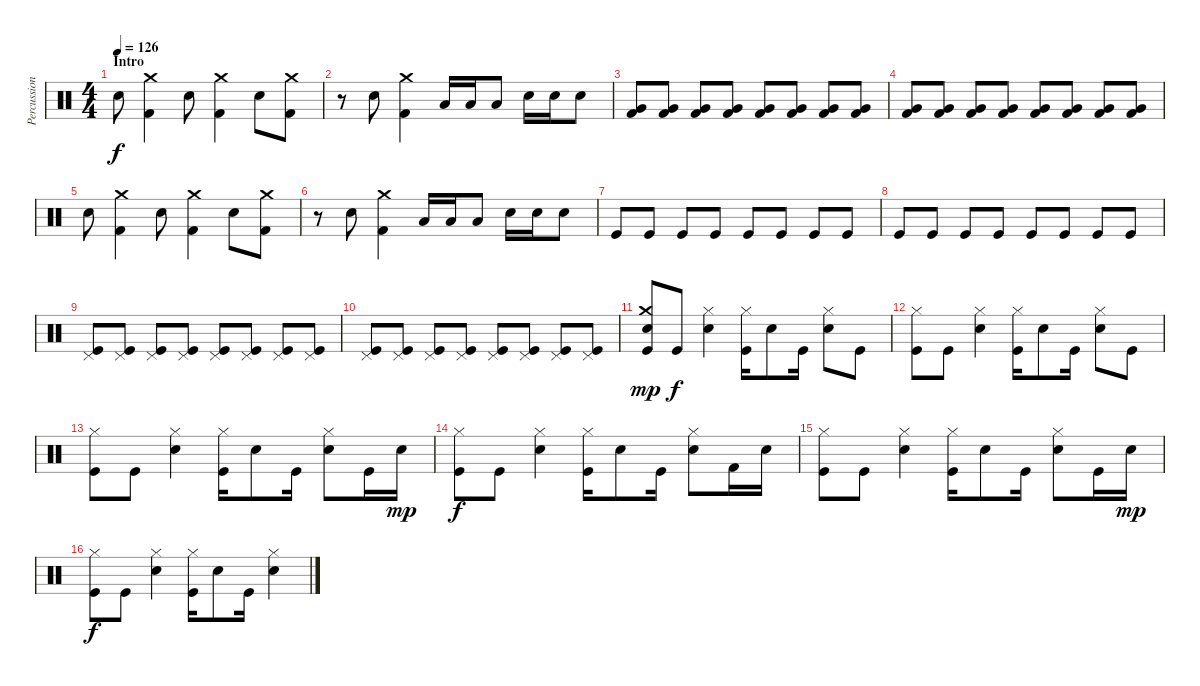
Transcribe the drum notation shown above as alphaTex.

\track ("Percussion" "Percussion") {instrument percussion}
\staff {score}
\articulation defaults
\ts (4 4)
\section ("" "Intro")
\tempo 126
\clef neutral
\ks c "Snare (hit) 2".8{dy f}
("Crash medium (hit)" "Kick (hit) 2").4 "Snare (hit) 2".8 ("Crash medium (hit)" "Kick (hit) 2").4 "Snare (hit) 2".8 ("Crash medium (hit)" "Kick (hit) 2").8 |
r.8 "Snare (hit) 2".8 ("Crash medium (hit)" "Kick (hit) 2").4 "Low Tom (hit)".16 "Low Tom (hit)".16 "Low Tom (hit)".8 "Snare (hit) 2".16 "Snare (hit) 2".16 "Snare (hit) 2".8 |
("Very Low Tom (hit)" "Kick (hit) 2").8 ("Very Low Tom (hit)" "Kick (hit) 2").8 ("Very Low Tom (hit)" "Kick (hit) 2").8 ("Very Low Tom (hit)" "Kick (hit) 2").8 ("Very Low Tom (hit)" "Kick (hit) 2").8 ("Very Low Tom (hit)" "Kick (hit) 2").8 ("Very Low Tom (hit)" "Kick (hit) 2").8 ("Very Low Tom (hit)" "Kick (hit) 2").8 |
("Very Low Tom (hit)" "Kick (hit) 2").8 ("Very Low Tom (hit)" "Kick (hit) 2").8 ("Very Low Tom (hit)" "Kick (hit) 2").8 ("Very Low Tom (hit)" "Kick (hit) 2").8 ("Very Low Tom (hit)" "Kick (hit) 2").8 ("Very Low Tom (hit)" "Kick (hit) 2").8 ("Very Low Tom (hit)" "Kick (hit) 2").8 ("Very Low Tom (hit)" "Kick (hit) 2").8 |
"Snare (hit) 2".8 ("Crash medium (hit)" "Kick (hit) 2").4 "Snare (hit) 2".8 ("Crash medium (hit)" "Kick (hit) 2").4 "Snare (hit) 2".8 ("Crash medium (hit)" "Kick (hit) 2").8 |
r.8 "Snare (hit) 2".8 ("Crash medium (hit)" "Kick (hit) 2").4 "Low Tom (hit)".16 "Low Tom (hit)".16 "Low Tom (hit)".8 "Snare (hit) 2".16 "Snare (hit) 2".16 "Snare (hit) 2".8 |
"Kick (hit)".8 "Kick (hit)".8 "Kick (hit)".8 "Kick (hit)".8 "Kick (hit)".8 "Kick (hit)".8 "Kick (hit)".8 "Kick (hit)".8 |
"Kick (hit)".8 "Kick (hit)".8 "Kick (hit)".8 "Kick (hit)".8 "Kick (hit)".8 "Kick (hit)".8 "Kick (hit)".8 "Kick (hit)".8 |
("Pedal Hi-Hat (hit)" "Kick (hit)").8 ("Pedal Hi-Hat (hit)" "Kick (hit)").8 ("Pedal Hi-Hat (hit)" "Kick (hit)").8 ("Pedal Hi-Hat (hit)" "Kick (hit)").8 ("Pedal Hi-Hat (hit)" "Kick (hit)").8 ("Pedal Hi-Hat (hit)" "Kick (hit)").8 ("Pedal Hi-Hat (hit)" "Kick (hit)").8 ("Pedal Hi-Hat (hit)" "Kick (hit)").8 |
("Pedal Hi-Hat (hit)" "Kick (hit)").8 ("Pedal Hi-Hat (hit)" "Kick (hit)").8 ("Pedal Hi-Hat (hit)" "Kick (hit)").8 ("Pedal Hi-Hat (hit)" "Kick (hit)").8 ("Pedal Hi-Hat (hit)" "Kick (hit)").8 ("Pedal Hi-Hat (hit)" "Kick (hit)").8 ("Pedal Hi-Hat (hit)" "Kick (hit)").8 ("Pedal Hi-Hat (hit)" "Kick (hit)").8 |
("Crash medium (hit)" "Snare (hit) 2" "Kick (hit)").8{dy mp} "Kick (hit)".8{dy f} ("Hi-Hat (closed)" "Snare (hit) 2").4 ("Hi-Hat (closed)" "Kick (hit)").16 "Snare (hit) 2".8 "Kick (hit)".16 ("Hi-Hat (closed)" "Snare (hit) 2").8 "Kick (hit)".8 |
("Hi-Hat (closed)" "Kick (hit)").8 "Kick (hit)".8 ("Hi-Hat (closed)" "Snare (hit) 2").4 ("Hi-Hat (closed)" "Kick (hit)").16 "Snare (hit) 2".8 "Kick (hit)".16 ("Hi-Hat (closed)" "Snare (hit) 2").8 "Kick (hit)".8 |
("Hi-Hat (closed)" "Kick (hit)").8 "Kick (hit)".8 ("Hi-Hat (closed)" "Snare (hit) 2").4 ("Hi-Hat (closed)" "Kick (hit)").16 "Snare (hit) 2".8 "Kick (hit)".16 ("Hi-Hat (closed)" "Snare (hit) 2").8 "Kick (hit)".16 "Snare (hit) 2".16{dy mp} |
("Hi-Hat (closed)" "Kick (hit)").8{dy f} "Kick (hit)".8 ("Hi-Hat (closed)" "Snare (hit) 2").4 ("Hi-Hat (closed)" "Kick (hit)").16 "Snare (hit) 2".8 "Kick (hit)".16 ("Hi-Hat (closed)" "Snare (hit) 2").8 "Kick (hit) 2".16 "Snare (hit) 2".16 |
("Hi-Hat (closed)" "Kick (hit)").8 "Kick (hit)".8 ("Hi-Hat (closed)" "Snare (hit) 2").4 ("Hi-Hat (closed)" "Kick (hit)").16 "Snare (hit) 2".8 "Kick (hit)".16 ("Hi-Hat (closed)" "Snare (hit) 2").8 "Kick (hit)".16 "Snare (hit) 2".16{dy mp} |
("Hi-Hat (closed)" "Kick (hit)").8{dy f} "Kick (hit)".8 ("Hi-Hat (closed)" "Snare (hit) 2").4 ("Hi-Hat (closed)" "Kick (hit)").16 "Snare (hit) 2".8 "Kick (hit)".16 ("Hi-Hat (closed)" "Snare (hit) 2").4
